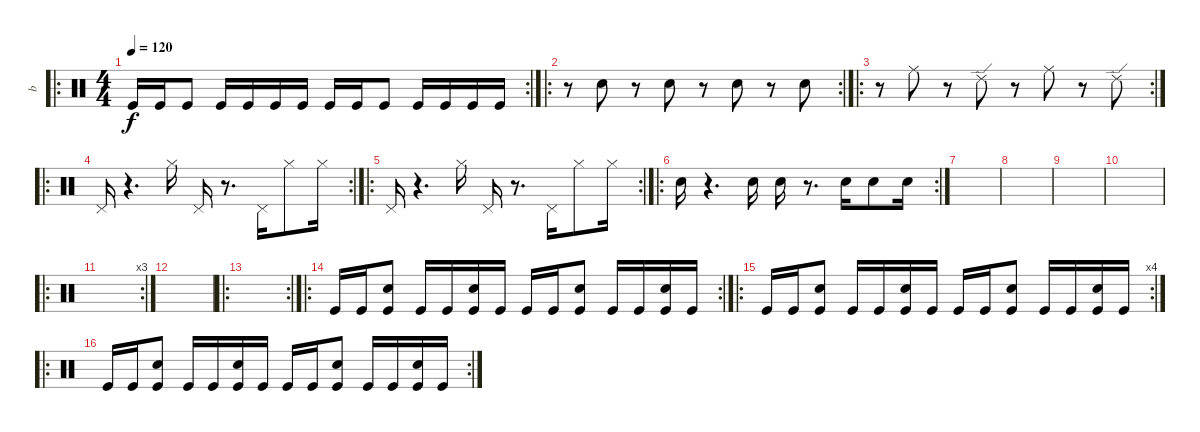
\track ("b" "b") {instrument percussion}
\staff {score}
\articulation defaults
\ro
\rc 2
\ts (4 4)
\tempo 120
\clef neutral
\ks c "Kick (hit)".16{dy f} "Kick (hit)".16 "Kick (hit)".8 "Kick (hit)".16 "Kick (hit)".16 "Kick (hit)".16 "Kick (hit)".16 "Kick (hit)".16 "Kick (hit)".16 "Kick (hit)".8 "Kick (hit)".16 "Kick (hit)".16 "Kick (hit)".16 "Kick (hit)".16
|
\ro
\rc 2
r.8 "Electric Snare (hit)".8 r.8 "Electric Snare (hit)".8 r.8 "Electric Snare (hit)".8 r.8 "Electric Snare (hit)".8 |
\ro
\rc 2
r.8 "Ride (middle)".8 r.8 "Ride (edge) 2".8 r.8 "Ride (middle)".8 r.8 "Ride (edge) 2".8 |
\ro
\rc 2 "Pedal Hi-Hat (hit)".16
r.4{d} "Hi-Hat (closed)".16 "Pedal Hi-Hat (hit)".16 r.8{d} "Pedal Hi-Hat (hit)".16 "Hi-Hat (closed)".8 "Hi-Hat (closed)".16 |
\ro
\rc 2 "Pedal Hi-Hat (hit)".16
r.4{d} "Hi-Hat (closed)".16 "Pedal Hi-Hat (hit)".16 r.8{d} "Pedal Hi-Hat (hit)".16 "Hi-Hat (closed)".8 "Hi-Hat (closed)".16 |
\ro
\rc 2 "Electric Snare (hit)".16
r.4{d} "Electric Snare (hit)".16 "Electric Snare (hit)".16 r.8{d} "Electric Snare (hit)".16 "Electric Snare (hit)".8 "Electric Snare (hit)".16 |
|
|
|
|
\ro
\rc 3
|
|
\ro
\rc 2
|
\ro
\rc 2 "Kick (hit)".16 "Kick (hit)".16
("Electric Snare (hit)" "Kick (hit)").8 "Kick (hit)".16 "Kick (hit)".16 ("Electric Snare (hit)" "Kick (hit)").16 "Kick (hit)".16 "Kick (hit)".16 "Kick (hit)".16 ("Electric Snare (hit)" "Kick (hit)").8 "Kick (hit)".16 "Kick (hit)".16 ("Electric Snare (hit)" "Kick (hit)").16 "Kick (hit)".16 |
\ro
\rc 4 "Kick (hit)".16 "Kick (hit)".16
("Electric Snare (hit)" "Kick (hit)").8 "Kick (hit)".16 "Kick (hit)".16 ("Electric Snare (hit)" "Kick (hit)").16 "Kick (hit)".16 "Kick (hit)".16 "Kick (hit)".16 ("Electric Snare (hit)" "Kick (hit)").8 "Kick (hit)".16 "Kick (hit)".16 ("Electric Snare (hit)" "Kick (hit)").16 "Kick (hit)".16 |
\ro
\rc 2 "Kick (hit)".16 "Kick (hit)".16
("Electric Snare (hit)" "Kick (hit)").8 "Kick (hit)".16 "Kick (hit)".16 ("Electric Snare (hit)" "Kick (hit)").16 "Kick (hit)".16 "Kick (hit)".16 "Kick (hit)".16 ("Electric Snare (hit)" "Kick (hit)").8 "Kick (hit)".16 "Kick (hit)".16 ("Electric Snare (hit)" "Kick (hit)").16 "Kick (hit)".16
